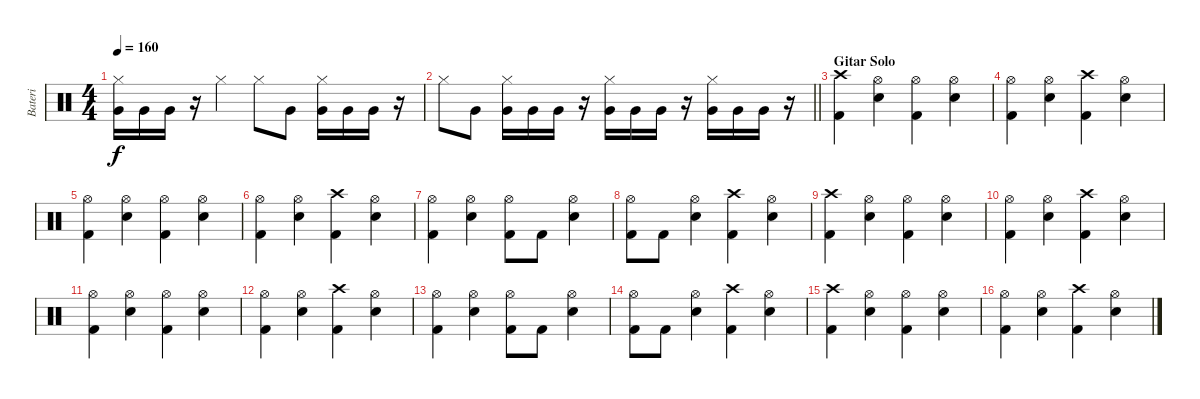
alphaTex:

\track ("Bateri" "Bateri") {instrument percussion}
\staff {score}
\articulation defaults
\ts (4 4)
\tempo 160
\clef neutral
\ks c
("Hi-Hat (closed)" "Very Low Tom (hit)").16{dy f} "Very Low Tom (hit)".16 "Very Low Tom (hit)".16 r.16 "Hi-Hat (closed)".4 "Hi-Hat (closed)".8 "Very Low Tom (hit)".8 ("Hi-Hat (closed)" "Very Low Tom (hit)").16 "Very Low Tom (hit)".16 "Very Low Tom (hit)".16 r.16 |
\barLineRight lightlight "Hi-Hat (closed)".8 "Very Low Tom (hit)".8
("Hi-Hat (closed)" "Very Low Tom (hit)").16 "Very Low Tom (hit)".16 "Very Low Tom (hit)".16 r.16 ("Hi-Hat (closed)" "Very Low Tom (hit)").16 "Very Low Tom (hit)".16 "Very Low Tom (hit)".16 r.16 ("Hi-Hat (closed)" "Very Low Tom (hit)").16 "Very Low Tom (hit)".16 "Very Low Tom (hit)".16 r.16 |
\section ("" "Gitar Solo")
("Crash high (hit)" "Kick (hit) 2").4 ("Hi-Hat (open)" "Snare (hit) 2").4 ("Hi-Hat (open)" "Kick (hit) 2").4 ("Hi-Hat (open)" "Snare (hit) 2").4 |
("Hi-Hat (open)" "Kick (hit) 2").4 ("Hi-Hat (open)" "Snare (hit) 2").4 ("Crash high (hit)" "Kick (hit) 2").4 ("Hi-Hat (open)" "Snare (hit) 2").4 |
("Hi-Hat (open)" "Kick (hit) 2").4 ("Hi-Hat (open)" "Snare (hit) 2").4 ("Hi-Hat (open)" "Kick (hit) 2").4 ("Hi-Hat (open)" "Snare (hit) 2").4 |
("Hi-Hat (open)" "Kick (hit) 2").4 ("Hi-Hat (open)" "Snare (hit) 2").4 ("Crash high (hit)" "Kick (hit) 2").4 ("Hi-Hat (open)" "Snare (hit) 2").4 |
("Hi-Hat (open)" "Kick (hit) 2").4 ("Hi-Hat (open)" "Snare (hit) 2").4 ("Hi-Hat (open)" "Kick (hit) 2").8 "Kick (hit) 2".8 ("Hi-Hat (open)" "Snare (hit) 2").4 |
("Hi-Hat (open)" "Kick (hit) 2").8 "Kick (hit) 2".8 ("Hi-Hat (open)" "Snare (hit) 2").4 ("Crash high (hit)" "Kick (hit) 2").4 ("Hi-Hat (open)" "Snare (hit) 2").4 |
("Crash high (hit)" "Kick (hit) 2").4 ("Hi-Hat (open)" "Snare (hit) 2").4 ("Hi-Hat (open)" "Kick (hit) 2").4 ("Hi-Hat (open)" "Snare (hit) 2").4 |
("Hi-Hat (open)" "Kick (hit) 2").4 ("Hi-Hat (open)" "Snare (hit) 2").4 ("Crash high (hit)" "Kick (hit) 2").4 ("Hi-Hat (open)" "Snare (hit) 2").4 |
("Hi-Hat (open)" "Kick (hit) 2").4 ("Hi-Hat (open)" "Snare (hit) 2").4 ("Hi-Hat (open)" "Kick (hit) 2").4 ("Hi-Hat (open)" "Snare (hit) 2").4 |
("Hi-Hat (open)" "Kick (hit) 2").4 ("Hi-Hat (open)" "Snare (hit) 2").4 ("Crash high (hit)" "Kick (hit) 2").4 ("Hi-Hat (open)" "Snare (hit) 2").4 |
("Hi-Hat (open)" "Kick (hit) 2").4 ("Hi-Hat (open)" "Snare (hit) 2").4 ("Hi-Hat (open)" "Kick (hit) 2").8 "Kick (hit) 2".8 ("Hi-Hat (open)" "Snare (hit) 2").4 |
("Hi-Hat (open)" "Kick (hit) 2").8 "Kick (hit) 2".8 ("Hi-Hat (open)" "Snare (hit) 2").4 ("Crash high (hit)" "Kick (hit) 2").4 ("Hi-Hat (open)" "Snare (hit) 2").4 |
("Crash high (hit)" "Kick (hit) 2").4 ("Hi-Hat (open)" "Snare (hit) 2").4 ("Hi-Hat (open)" "Kick (hit) 2").4 ("Hi-Hat (open)" "Snare (hit) 2").4 |
("Hi-Hat (open)" "Kick (hit) 2").4 ("Hi-Hat (open)" "Snare (hit) 2").4 ("Crash high (hit)" "Kick (hit) 2").4 ("Hi-Hat (open)" "Snare (hit) 2").4
